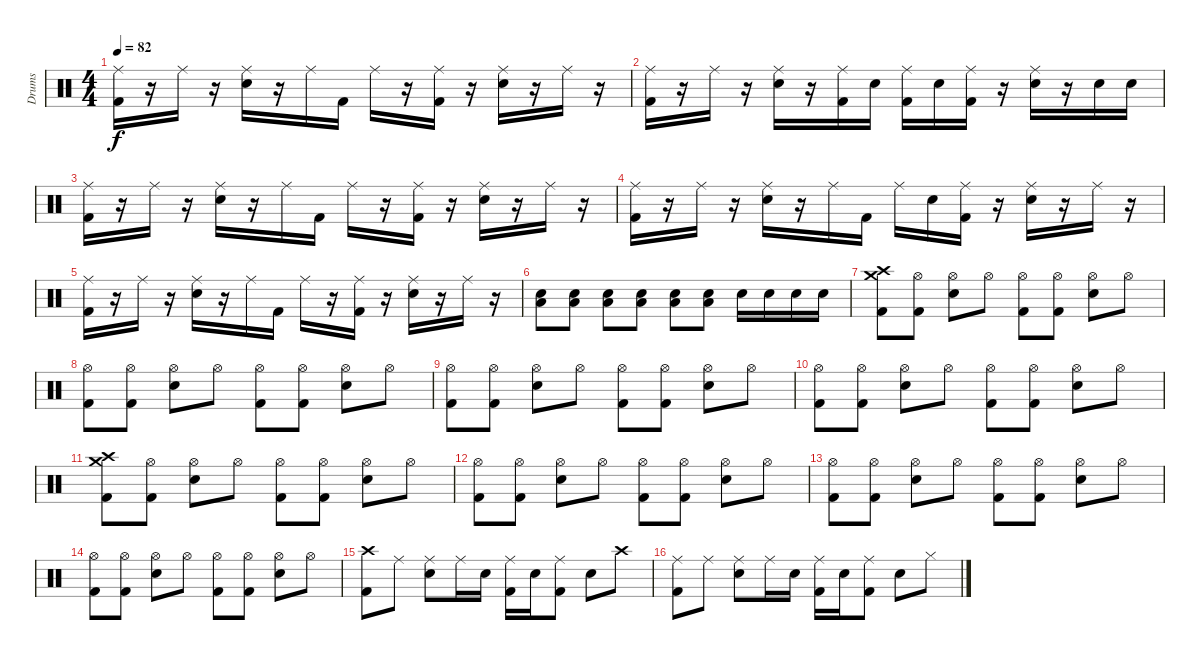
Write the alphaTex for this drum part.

\track ("Drums" "Drums") {instrument percussion}
\staff {score}
\articulation defaults
\ts (4 4)
\tempo 82
\clef neutral
\ks c
("Ride (middle)" "Kick (hit) 2").16{dy f} r.16 "Ride (middle)".16 r.16 ("Ride (middle)" "Electric Snare (hit)").16 r.16 "Ride (middle)".16 "Kick (hit) 2".16 "Ride (middle)".16 r.16 ("Ride (middle)" "Kick (hit) 2").16 r.16 ("Ride (middle)" "Electric Snare (hit)").16 r.16 "Ride (middle)".16 r.16 |
("Ride (middle)" "Kick (hit) 2").16 r.16 "Ride (middle)".16 r.16 ("Ride (middle)" "Electric Snare (hit)").16 r.16 ("Ride (middle)" "Kick (hit) 2").16 "Electric Snare (hit)".16 ("Ride (middle)" "Kick (hit) 2").16 "Electric Snare (hit)".16 ("Ride (middle)" "Kick (hit) 2").16 r.16 ("Ride (middle)" "Electric Snare (hit)").16 r.16 "Electric Snare (hit)".16 "Electric Snare (hit)".16 |
("Ride (middle)" "Kick (hit) 2").16 r.16 "Ride (middle)".16 r.16 ("Ride (middle)" "Electric Snare (hit)").16 r.16 "Ride (middle)".16 "Kick (hit) 2".16 "Ride (middle)".16 r.16 ("Ride (middle)" "Kick (hit) 2").16 r.16 ("Ride (middle)" "Electric Snare (hit)").16 r.16 "Ride (middle)".16 r.16 |
("Ride (middle)" "Kick (hit) 2").16 r.16 "Ride (middle)".16 r.16 ("Ride (middle)" "Electric Snare (hit)").16 r.16 "Ride (middle)".16 "Kick (hit) 2".16 "Ride (middle)".16 "Electric Snare (hit)".16 ("Ride (middle)" "Kick (hit) 2").16 r.16 ("Ride (middle)" "Electric Snare (hit)").16 r.16 "Ride (middle)".16 r.16 |
("Ride (middle)" "Kick (hit) 2").16 r.16 "Ride (middle)".16 r.16 ("Ride (middle)" "Electric Snare (hit)").16 r.16 "Ride (middle)".16 "Kick (hit) 2".16 "Ride (middle)".16 r.16 ("Ride (middle)" "Kick (hit) 2").16 r.16 ("Ride (middle)" "Electric Snare (hit)").16 r.16 "Ride (middle)".16 r.16 |
("Low Floor Tom (hit)" "Electric Snare (hit)").8 ("Low Floor Tom (hit)" "Electric Snare (hit)").8 ("Low Floor Tom (hit)" "Electric Snare (hit)").8 ("Low Floor Tom (hit)" "Electric Snare (hit)").8 ("Low Floor Tom (hit)" "Electric Snare (hit)").8 ("Low Floor Tom (hit)" "Electric Snare (hit)").8 "Electric Snare (hit)".16 "Electric Snare (hit)".16 "Electric Snare (hit)".16 "Electric Snare (hit)".16 |
("Crash high (hit)" "Kick (hit) 2" "Crash medium (hit)").8 ("Hi-Hat (open)" "Kick (hit) 2").8 ("Hi-Hat (open)" "Electric Snare (hit)").8 "Hi-Hat (open)".8 ("Hi-Hat (open)" "Kick (hit) 2").8 ("Hi-Hat (open)" "Kick (hit) 2").8 ("Hi-Hat (open)" "Electric Snare (hit)").8 "Hi-Hat (open)".8 |
("Hi-Hat (open)" "Kick (hit) 2").8 ("Hi-Hat (open)" "Kick (hit) 2").8 ("Hi-Hat (open)" "Electric Snare (hit)").8 "Hi-Hat (open)".8 ("Hi-Hat (open)" "Kick (hit) 2").8 ("Hi-Hat (open)" "Kick (hit) 2").8 ("Hi-Hat (open)" "Electric Snare (hit)").8 "Hi-Hat (open)".8 |
("Hi-Hat (open)" "Kick (hit) 2").8 ("Hi-Hat (open)" "Kick (hit) 2").8 ("Hi-Hat (open)" "Electric Snare (hit)").8 "Hi-Hat (open)".8 ("Hi-Hat (open)" "Kick (hit) 2").8 ("Hi-Hat (open)" "Kick (hit) 2").8 ("Hi-Hat (open)" "Electric Snare (hit)").8 "Hi-Hat (open)".8 |
("Hi-Hat (open)" "Kick (hit) 2").8 ("Hi-Hat (open)" "Kick (hit) 2").8 ("Hi-Hat (open)" "Electric Snare (hit)").8 "Hi-Hat (open)".8 ("Hi-Hat (open)" "Kick (hit) 2").8 ("Hi-Hat (open)" "Kick (hit) 2").8 ("Hi-Hat (open)" "Electric Snare (hit)").8 "Hi-Hat (open)".8 |
("Crash high (hit)" "Kick (hit) 2" "Crash medium (hit)").8 ("Hi-Hat (open)" "Kick (hit) 2").8 ("Hi-Hat (open)" "Electric Snare (hit)").8 "Hi-Hat (open)".8 ("Hi-Hat (open)" "Kick (hit) 2").8 ("Hi-Hat (open)" "Kick (hit) 2").8 ("Hi-Hat (open)" "Electric Snare (hit)").8 "Hi-Hat (open)".8 |
("Hi-Hat (open)" "Kick (hit) 2").8 ("Hi-Hat (open)" "Kick (hit) 2").8 ("Hi-Hat (open)" "Electric Snare (hit)").8 "Hi-Hat (open)".8 ("Hi-Hat (open)" "Kick (hit) 2").8 ("Hi-Hat (open)" "Kick (hit) 2").8 ("Hi-Hat (open)" "Electric Snare (hit)").8 "Hi-Hat (open)".8 |
("Hi-Hat (open)" "Kick (hit) 2").8 ("Hi-Hat (open)" "Kick (hit) 2").8 ("Hi-Hat (open)" "Electric Snare (hit)").8 "Hi-Hat (open)".8 ("Hi-Hat (open)" "Kick (hit) 2").8 ("Hi-Hat (open)" "Kick (hit) 2").8 ("Hi-Hat (open)" "Electric Snare (hit)").8 "Hi-Hat (open)".8 |
("Hi-Hat (open)" "Kick (hit) 2").8 ("Hi-Hat (open)" "Kick (hit) 2").8 ("Hi-Hat (open)" "Electric Snare (hit)").8 "Hi-Hat (open)".8 ("Hi-Hat (open)" "Kick (hit) 2").8 ("Hi-Hat (open)" "Kick (hit) 2").8 ("Hi-Hat (open)" "Electric Snare (hit)").8 "Hi-Hat (open)".8 |
("Crash high (hit)" "Kick (hit) 2").8 "Ride (middle)".8 ("Ride (middle)" "Electric Snare (hit)").8 "Ride (middle)".16 "Electric Snare (hit)".16 ("Ride (middle)" "Kick (hit) 2").16 "Electric Snare (hit)".16 ("Ride (middle)" "Kick (hit) 2").8 "Electric Snare (hit)".8 "Crash high (hit)".8 |
("Ride (middle)" "Kick (hit) 2").8 "Ride (middle)".8 ("Ride (middle)" "Electric Snare (hit)").8 "Ride (middle)".16 "Electric Snare (hit)".16 ("Ride (middle)" "Kick (hit) 2").16 "Electric Snare (hit)".16 ("Ride (middle)" "Kick (hit) 2").8 "Electric Snare (hit)".8 "Hi-Hat (closed)".8
